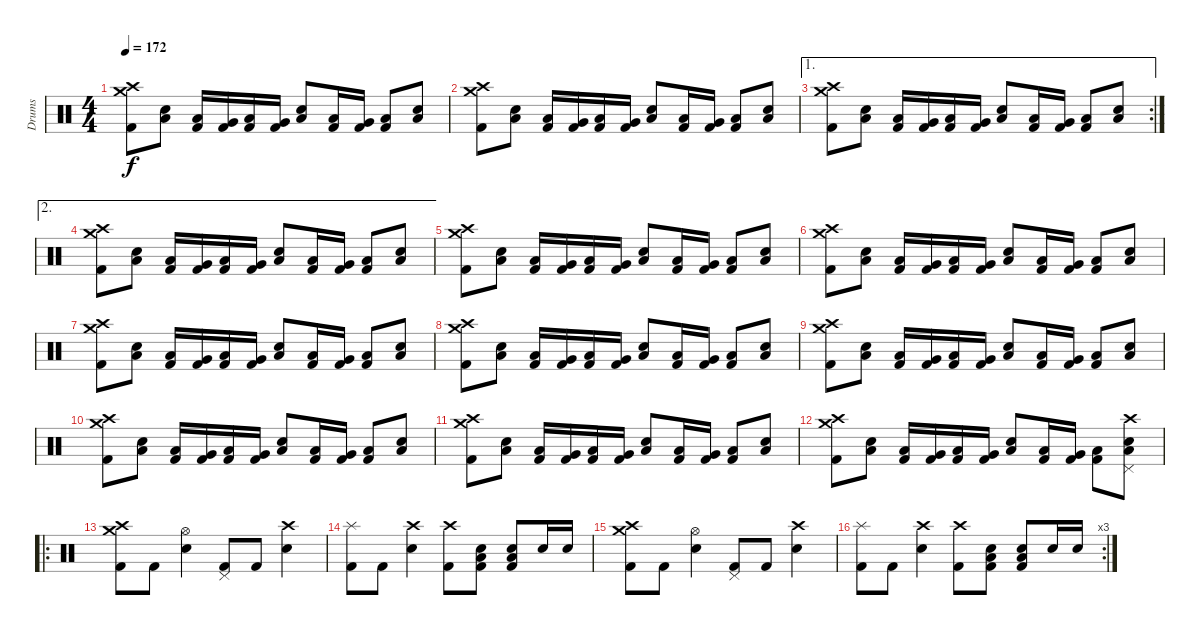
\track ("Drums" "Drums") {instrument percussion}
\staff {score}
\articulation defaults
\ts (4 4)
\tempo 172
\clef neutral
\ks c
("Crash medium (hit)" "Crash high (hit)" "Kick (hit) 2").8{dy f} ("Low Floor Tom (hit)" "Electric Snare (hit)").8 ("Low Floor Tom (hit)" "Kick (hit) 2").16 ("Very Low Tom (hit)" "Kick (hit) 2").16 ("Low Floor Tom (hit)" "Kick (hit) 2").16 ("Very Low Tom (hit)" "Kick (hit) 2").16 ("Low Floor Tom (hit)" "Electric Snare (hit)").8 ("Low Floor Tom (hit)" "Kick (hit) 2").16 ("Very Low Tom (hit)" "Kick (hit) 2").16 ("Low Floor Tom (hit)" "Kick (hit) 2").8 ("Low Floor Tom (hit)" "Electric Snare (hit)").8 |
("Crash medium (hit)" "Crash high (hit)" "Kick (hit) 2").8 ("Low Floor Tom (hit)" "Electric Snare (hit)").8 ("Low Floor Tom (hit)" "Kick (hit) 2").16 ("Very Low Tom (hit)" "Kick (hit) 2").16 ("Low Floor Tom (hit)" "Kick (hit) 2").16 ("Very Low Tom (hit)" "Kick (hit) 2").16 ("Low Floor Tom (hit)" "Electric Snare (hit)").8 ("Low Floor Tom (hit)" "Kick (hit) 2").16 ("Very Low Tom (hit)" "Kick (hit) 2").16 ("Low Floor Tom (hit)" "Kick (hit) 2").8 ("Low Floor Tom (hit)" "Electric Snare (hit)").8 |
\ae 1
\rc 2
("Crash medium (hit)" "Crash high (hit)" "Kick (hit) 2").8 ("Low Floor Tom (hit)" "Electric Snare (hit)").8 ("Low Floor Tom (hit)" "Kick (hit) 2").16 ("Very Low Tom (hit)" "Kick (hit) 2").16 ("Low Floor Tom (hit)" "Kick (hit) 2").16 ("Very Low Tom (hit)" "Kick (hit) 2").16 ("Low Floor Tom (hit)" "Electric Snare (hit)").8 ("Low Floor Tom (hit)" "Kick (hit) 2").16 ("Very Low Tom (hit)" "Kick (hit) 2").16 ("Low Floor Tom (hit)" "Kick (hit) 2").8 ("Low Floor Tom (hit)" "Electric Snare (hit)").8 |
\ae 2
("Crash medium (hit)" "Crash high (hit)" "Kick (hit) 2").8 ("Low Floor Tom (hit)" "Electric Snare (hit)").8 ("Low Floor Tom (hit)" "Kick (hit) 2").16 ("Very Low Tom (hit)" "Kick (hit) 2").16 ("Low Floor Tom (hit)" "Kick (hit) 2").16 ("Very Low Tom (hit)" "Kick (hit) 2").16 ("Low Floor Tom (hit)" "Electric Snare (hit)").8 ("Low Floor Tom (hit)" "Kick (hit) 2").16 ("Very Low Tom (hit)" "Kick (hit) 2").16 ("Low Floor Tom (hit)" "Kick (hit) 2").8 ("Low Floor Tom (hit)" "Electric Snare (hit)").8 |
("Crash medium (hit)" "Crash high (hit)" "Kick (hit) 2").8 ("Low Floor Tom (hit)" "Electric Snare (hit)").8 ("Low Floor Tom (hit)" "Kick (hit) 2").16 ("Very Low Tom (hit)" "Kick (hit) 2").16 ("Low Floor Tom (hit)" "Kick (hit) 2").16 ("Very Low Tom (hit)" "Kick (hit) 2").16 ("Low Floor Tom (hit)" "Electric Snare (hit)").8 ("Low Floor Tom (hit)" "Kick (hit) 2").16 ("Very Low Tom (hit)" "Kick (hit) 2").16 ("Low Floor Tom (hit)" "Kick (hit) 2").8 ("Low Floor Tom (hit)" "Electric Snare (hit)").8 |
("Crash medium (hit)" "Crash high (hit)" "Kick (hit) 2").8 ("Low Floor Tom (hit)" "Electric Snare (hit)").8 ("Low Floor Tom (hit)" "Kick (hit) 2").16 ("Very Low Tom (hit)" "Kick (hit) 2").16 ("Low Floor Tom (hit)" "Kick (hit) 2").16 ("Very Low Tom (hit)" "Kick (hit) 2").16 ("Low Floor Tom (hit)" "Electric Snare (hit)").8 ("Low Floor Tom (hit)" "Kick (hit) 2").16 ("Very Low Tom (hit)" "Kick (hit) 2").16 ("Low Floor Tom (hit)" "Kick (hit) 2").8 ("Low Floor Tom (hit)" "Electric Snare (hit)").8 |
("Crash medium (hit)" "Crash high (hit)" "Kick (hit) 2").8 ("Low Floor Tom (hit)" "Electric Snare (hit)").8 ("Low Floor Tom (hit)" "Kick (hit) 2").16 ("Very Low Tom (hit)" "Kick (hit) 2").16 ("Low Floor Tom (hit)" "Kick (hit) 2").16 ("Very Low Tom (hit)" "Kick (hit) 2").16 ("Low Floor Tom (hit)" "Electric Snare (hit)").8 ("Low Floor Tom (hit)" "Kick (hit) 2").16 ("Very Low Tom (hit)" "Kick (hit) 2").16 ("Low Floor Tom (hit)" "Kick (hit) 2").8 ("Low Floor Tom (hit)" "Electric Snare (hit)").8 |
("Crash medium (hit)" "Crash high (hit)" "Kick (hit) 2").8 ("Low Floor Tom (hit)" "Electric Snare (hit)").8 ("Low Floor Tom (hit)" "Kick (hit) 2").16 ("Very Low Tom (hit)" "Kick (hit) 2").16 ("Low Floor Tom (hit)" "Kick (hit) 2").16 ("Very Low Tom (hit)" "Kick (hit) 2").16 ("Low Floor Tom (hit)" "Electric Snare (hit)").8 ("Low Floor Tom (hit)" "Kick (hit) 2").16 ("Very Low Tom (hit)" "Kick (hit) 2").16 ("Low Floor Tom (hit)" "Kick (hit) 2").8 ("Low Floor Tom (hit)" "Electric Snare (hit)").8 |
("Crash medium (hit)" "Crash high (hit)" "Kick (hit) 2").8 ("Low Floor Tom (hit)" "Electric Snare (hit)").8 ("Low Floor Tom (hit)" "Kick (hit) 2").16 ("Very Low Tom (hit)" "Kick (hit) 2").16 ("Low Floor Tom (hit)" "Kick (hit) 2").16 ("Very Low Tom (hit)" "Kick (hit) 2").16 ("Low Floor Tom (hit)" "Electric Snare (hit)").8 ("Low Floor Tom (hit)" "Kick (hit) 2").16 ("Very Low Tom (hit)" "Kick (hit) 2").16 ("Low Floor Tom (hit)" "Kick (hit) 2").8 ("Low Floor Tom (hit)" "Electric Snare (hit)").8 |
("Crash medium (hit)" "Crash high (hit)" "Kick (hit) 2").8 ("Low Floor Tom (hit)" "Electric Snare (hit)").8 ("Low Floor Tom (hit)" "Kick (hit) 2").16 ("Very Low Tom (hit)" "Kick (hit) 2").16 ("Low Floor Tom (hit)" "Kick (hit) 2").16 ("Very Low Tom (hit)" "Kick (hit) 2").16 ("Low Floor Tom (hit)" "Electric Snare (hit)").8 ("Low Floor Tom (hit)" "Kick (hit) 2").16 ("Very Low Tom (hit)" "Kick (hit) 2").16 ("Low Floor Tom (hit)" "Kick (hit) 2").8 ("Low Floor Tom (hit)" "Electric Snare (hit)").8 |
("Crash medium (hit)" "Crash high (hit)" "Kick (hit) 2").8 ("Low Floor Tom (hit)" "Electric Snare (hit)").8 ("Low Floor Tom (hit)" "Kick (hit) 2").16 ("Very Low Tom (hit)" "Kick (hit) 2").16 ("Low Floor Tom (hit)" "Kick (hit) 2").16 ("Very Low Tom (hit)" "Kick (hit) 2").16 ("Low Floor Tom (hit)" "Electric Snare (hit)").8 ("Low Floor Tom (hit)" "Kick (hit) 2").16 ("Very Low Tom (hit)" "Kick (hit) 2").16 ("Low Floor Tom (hit)" "Kick (hit) 2").8 ("Low Floor Tom (hit)" "Electric Snare (hit)").8 |
("Crash medium (hit)" "Crash high (hit)" "Kick (hit) 2").8 ("Low Floor Tom (hit)" "Electric Snare (hit)").8 ("Low Floor Tom (hit)" "Kick (hit) 2").16 ("Very Low Tom (hit)" "Kick (hit) 2").16 ("Low Floor Tom (hit)" "Kick (hit) 2").16 ("Very Low Tom (hit)" "Kick (hit) 2").16 ("Low Floor Tom (hit)" "Electric Snare (hit)").8 ("Low Floor Tom (hit)" "Kick (hit) 2").16 ("Very Low Tom (hit)" "Kick (hit) 2").16 ("Low Floor Tom (hit)" "Kick (hit) 2").8 ("Low Floor Tom (hit)" "Crash high (hit)" "Pedal Hi-Hat (hit)" "Electric Snare (hit)").8 |
\ro
("Crash medium (hit)" "Crash high (hit)" "Kick (hit) 2").8 "Kick (hit) 2".8 ("Hi-Hat (open)" "Electric Snare (hit)").4 ("Pedal Hi-Hat (hit)" "Kick (hit) 2").8 "Kick (hit) 2".8 ("Crash high (hit)" "Electric Snare (hit)").4 |
("Splash (hit)" "Kick (hit) 2").8 "Kick (hit) 2".8 ("Crash high (hit)" "Electric Snare (hit)").4 ("Crash high (hit)" "Kick (hit) 2").8 ("Low Floor Tom (hit)" "Electric Snare (hit)" "Kick (hit) 2").8 ("Low Floor Tom (hit)" "Electric Snare (hit)" "Kick (hit) 2").8 "Electric Snare (hit)".16 "Electric Snare (hit)".16 |
("Crash medium (hit)" "Crash high (hit)" "Kick (hit) 2").8 "Kick (hit) 2".8 ("Hi-Hat (open)" "Electric Snare (hit)").4 ("Pedal Hi-Hat (hit)" "Kick (hit) 2").8 "Kick (hit) 2".8 ("Crash high (hit)" "Electric Snare (hit)").4 |
\rc 3
("Splash (hit)" "Kick (hit) 2").8 "Kick (hit) 2".8 ("Crash high (hit)" "Electric Snare (hit)").4 ("Crash high (hit)" "Kick (hit) 2").8 ("Low Floor Tom (hit)" "Electric Snare (hit)" "Kick (hit) 2").8 ("Low Floor Tom (hit)" "Electric Snare (hit)" "Kick (hit) 2").8 "Electric Snare (hit)".16 "Electric Snare (hit)".16
